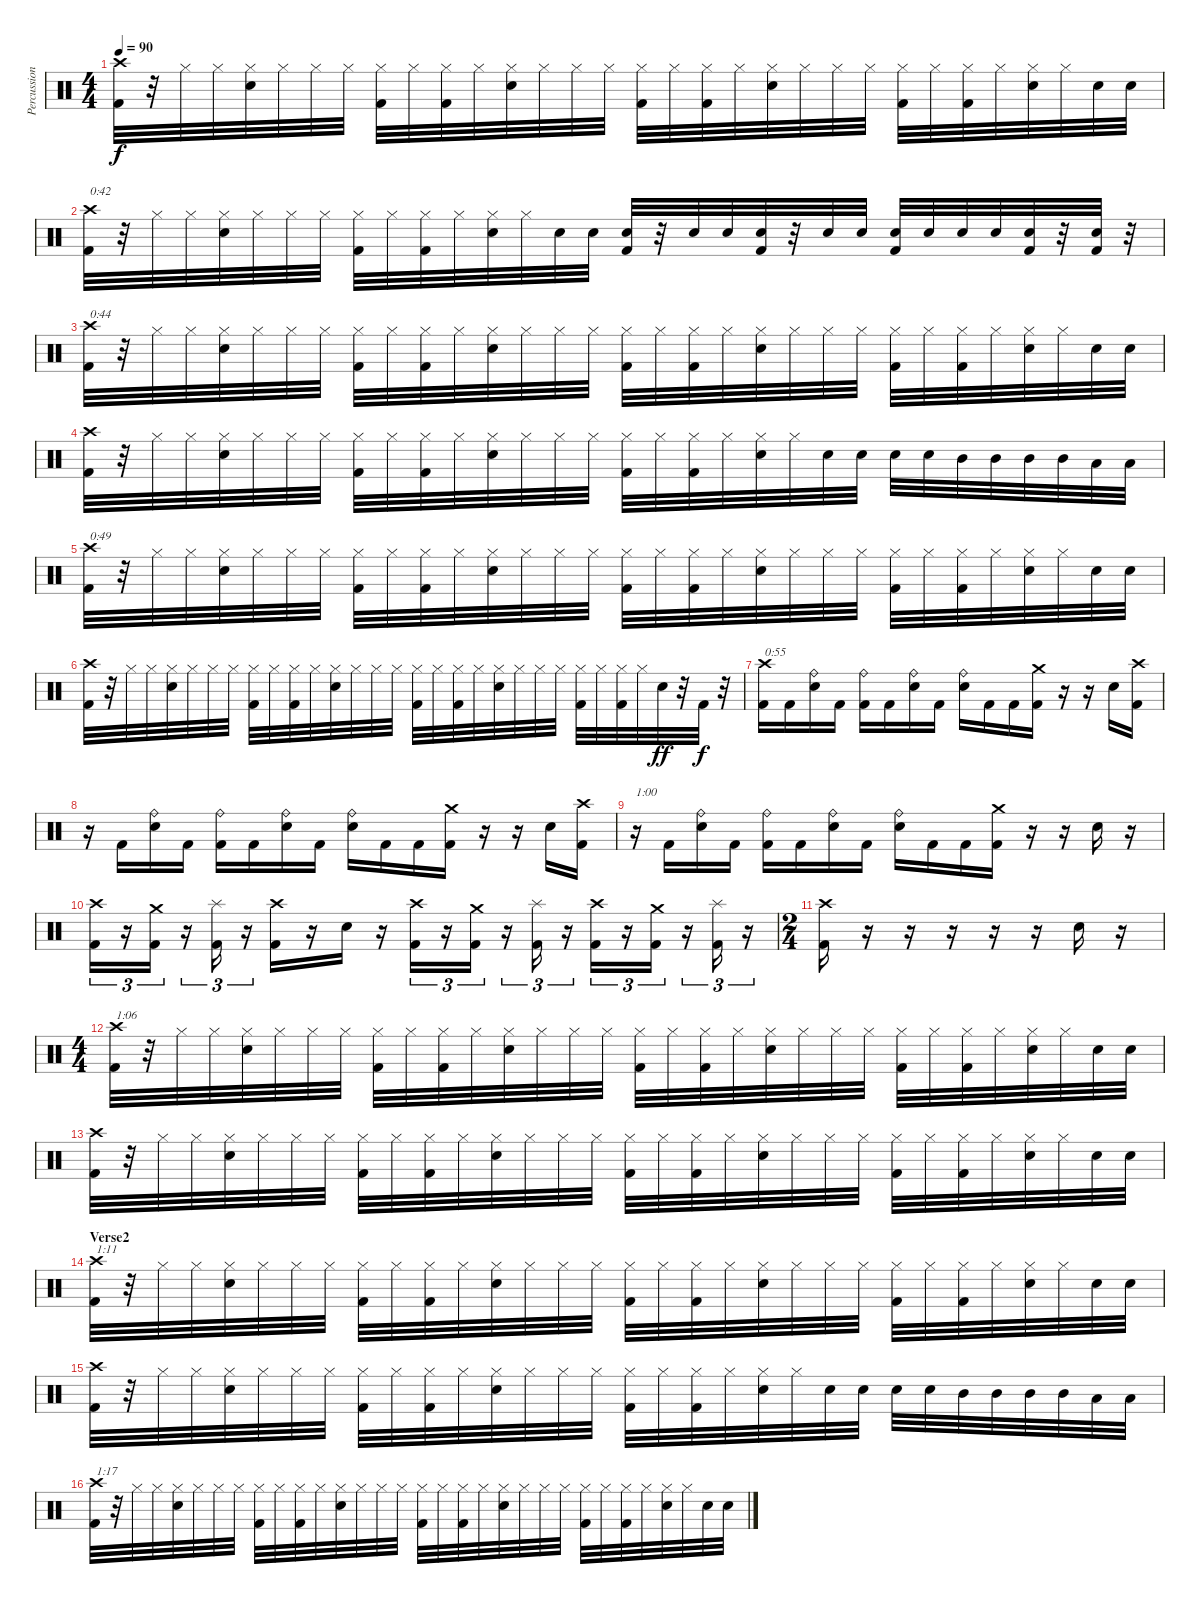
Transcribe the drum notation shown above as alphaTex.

\track ("Percussion" "Percussion") {instrument percussion}
\staff {score}
\articulation defaults
\ts (4 4)
\tempo 90
\clef neutral
\ks c
("Crash high (hit)" "Kick (hit) 2").32{dy f} r.32 "Hi-Hat (closed)".32 "Hi-Hat (closed)".32 ("Hi-Hat (closed)" "Snare (hit) 2").32 "Hi-Hat (closed)".32 "Hi-Hat (closed)".32 "Hi-Hat (closed)".32 ("Hi-Hat (closed)" "Kick (hit) 2").32 "Hi-Hat (closed)".32 ("Hi-Hat (closed)" "Kick (hit) 2").32 "Hi-Hat (closed)".32 ("Hi-Hat (closed)" "Snare (hit) 2").32 "Hi-Hat (closed)".32 "Hi-Hat (closed)".32 "Hi-Hat (closed)".32 ("Hi-Hat (closed)" "Kick (hit) 2").32 "Hi-Hat (closed)".32 ("Hi-Hat (closed)" "Kick (hit) 2").32 "Hi-Hat (closed)".32 ("Hi-Hat (closed)" "Snare (hit) 2").32 "Hi-Hat (closed)".32 "Hi-Hat (closed)".32 "Hi-Hat (closed)".32 ("Hi-Hat (closed)" "Kick (hit) 2").32 "Hi-Hat (closed)".32 ("Hi-Hat (closed)" "Kick (hit) 2").32 "Hi-Hat (closed)".32 ("Hi-Hat (closed)" "Snare (hit) 2").32 "Hi-Hat (closed)".32 "Snare (hit) 2".32 "Snare (hit) 2".32 |
("Crash high (hit)" "Kick (hit) 2").32{txt "0:42"} r.32 "Hi-Hat (closed)".32 "Hi-Hat (closed)".32 ("Hi-Hat (closed)" "Snare (hit) 2").32 "Hi-Hat (closed)".32 "Hi-Hat (closed)".32 "Hi-Hat (closed)".32 ("Hi-Hat (closed)" "Kick (hit) 2").32 "Hi-Hat (closed)".32 ("Hi-Hat (closed)" "Kick (hit) 2").32 "Hi-Hat (closed)".32 ("Hi-Hat (closed)" "Snare (hit) 2").32 "Hi-Hat (closed)".32 "Snare (hit) 2".32 "Snare (hit) 2".32 ("Snare (hit) 2" "Kick (hit) 2").32 r.32 "Snare (hit) 2".32 "Snare (hit) 2".32 ("Snare (hit) 2" "Kick (hit) 2").32 r.32 "Snare (hit) 2".32 "Snare (hit) 2".32 ("Snare (hit) 2" "Kick (hit) 2").32 "Snare (hit) 2".32 "Snare (hit) 2".32 "Snare (hit) 2".32 ("Snare (hit) 2" "Kick (hit) 2").32 r.32 ("Snare (hit) 2" "Kick (hit) 2").32 r.32 |
("Crash high (hit)" "Kick (hit) 2").32{txt "0:44"} r.32 "Hi-Hat (closed)".32 "Hi-Hat (closed)".32 ("Hi-Hat (closed)" "Snare (hit) 2").32 "Hi-Hat (closed)".32 "Hi-Hat (closed)".32 "Hi-Hat (closed)".32 ("Hi-Hat (closed)" "Kick (hit) 2").32 "Hi-Hat (closed)".32 ("Hi-Hat (closed)" "Kick (hit) 2").32 "Hi-Hat (closed)".32 ("Hi-Hat (closed)" "Snare (hit) 2").32 "Hi-Hat (closed)".32 "Hi-Hat (closed)".32 "Hi-Hat (closed)".32 ("Hi-Hat (closed)" "Kick (hit) 2").32 "Hi-Hat (closed)".32 ("Hi-Hat (closed)" "Kick (hit) 2").32 "Hi-Hat (closed)".32 ("Hi-Hat (closed)" "Snare (hit) 2").32 "Hi-Hat (closed)".32 "Hi-Hat (closed)".32 "Hi-Hat (closed)".32 ("Hi-Hat (closed)" "Kick (hit) 2").32 "Hi-Hat (closed)".32 ("Hi-Hat (closed)" "Kick (hit) 2").32 "Hi-Hat (closed)".32 ("Hi-Hat (closed)" "Snare (hit) 2").32 "Hi-Hat (closed)".32 "Snare (hit) 2".32 "Snare (hit) 2".32 |
("Crash high (hit)" "Kick (hit) 2").32 r.32 "Hi-Hat (closed)".32 "Hi-Hat (closed)".32 ("Hi-Hat (closed)" "Snare (hit) 2").32 "Hi-Hat (closed)".32 "Hi-Hat (closed)".32 "Hi-Hat (closed)".32 ("Hi-Hat (closed)" "Kick (hit) 2").32 "Hi-Hat (closed)".32 ("Hi-Hat (closed)" "Kick (hit) 2").32 "Hi-Hat (closed)".32 ("Hi-Hat (closed)" "Snare (hit) 2").32 "Hi-Hat (closed)".32 "Hi-Hat (closed)".32 "Hi-Hat (closed)".32 ("Hi-Hat (closed)" "Kick (hit) 2").32 "Hi-Hat (closed)".32 ("Hi-Hat (closed)" "Kick (hit) 2").32 "Hi-Hat (closed)".32 ("Hi-Hat (closed)" "Snare (hit) 2").32 "Hi-Hat (closed)".32 "Snare (hit) 2".32 "Snare (hit) 2".32 "Snare (hit) 2".32 "Snare (hit) 2".32 "Mid Tom (hit)".32 "Mid Tom (hit)".32 "Mid Tom (hit)".32 "Mid Tom (hit)".32 "Low Tom (hit)".32 "Low Tom (hit)".32 |
("Crash high (hit)" "Kick (hit) 2").32{txt "0:49"} r.32 "Hi-Hat (closed)".32 "Hi-Hat (closed)".32 ("Hi-Hat (closed)" "Snare (hit) 2").32 "Hi-Hat (closed)".32 "Hi-Hat (closed)".32 "Hi-Hat (closed)".32 ("Hi-Hat (closed)" "Kick (hit) 2").32 "Hi-Hat (closed)".32 ("Hi-Hat (closed)" "Kick (hit) 2").32 "Hi-Hat (closed)".32 ("Hi-Hat (closed)" "Snare (hit) 2").32 "Hi-Hat (closed)".32 "Hi-Hat (closed)".32 "Hi-Hat (closed)".32 ("Hi-Hat (closed)" "Kick (hit) 2").32 "Hi-Hat (closed)".32 ("Hi-Hat (closed)" "Kick (hit) 2").32 "Hi-Hat (closed)".32 ("Hi-Hat (closed)" "Snare (hit) 2").32 "Hi-Hat (closed)".32 "Hi-Hat (closed)".32 "Hi-Hat (closed)".32 ("Hi-Hat (closed)" "Kick (hit) 2").32 "Hi-Hat (closed)".32 ("Hi-Hat (closed)" "Kick (hit) 2").32 "Hi-Hat (closed)".32 ("Hi-Hat (closed)" "Snare (hit) 2").32 "Hi-Hat (closed)".32 "Snare (hit) 2".32 "Snare (hit) 2".32 |
("Crash high (hit)" "Kick (hit) 2").32 r.32 "Hi-Hat (closed)".32 "Hi-Hat (closed)".32 ("Hi-Hat (closed)" "Snare (hit) 2").32 "Hi-Hat (closed)".32 "Hi-Hat (closed)".32 "Hi-Hat (closed)".32 ("Hi-Hat (closed)" "Kick (hit) 2").32 "Hi-Hat (closed)".32 ("Hi-Hat (closed)" "Kick (hit) 2").32 "Hi-Hat (closed)".32 ("Hi-Hat (closed)" "Snare (hit) 2").32 "Hi-Hat (closed)".32 "Hi-Hat (closed)".32 "Hi-Hat (closed)".32 ("Hi-Hat (closed)" "Kick (hit) 2").32 "Hi-Hat (closed)".32 ("Hi-Hat (closed)" "Kick (hit) 2").32 "Hi-Hat (closed)".32 ("Hi-Hat (closed)" "Snare (hit) 2").32 "Hi-Hat (closed)".32 "Hi-Hat (closed)".32 "Hi-Hat (closed)".32 ("Hi-Hat (closed)" "Kick (hit) 2").32 "Hi-Hat (closed)".32 ("Hi-Hat (closed)" "Kick (hit) 2").32 "Hi-Hat (closed)".32 "Snare (hit) 2".32{dy ff} r.32 "Kick (hit) 2".32{dy f} r.32 |
("Crash high (hit)" "Kick (hit) 2").16{txt "0:55"} "Kick (hit) 2".16 ("Ride (bell)" "Snare (hit) 2").16 "Kick (hit) 2".16 ("Ride (bell)" "Kick (hit) 2").16 "Kick (hit) 2".16 ("Ride (bell)" "Snare (hit) 2").16 "Kick (hit) 2".16 ("Ride (bell)" "Snare (hit) 2").16 "Kick (hit) 2".16 "Kick (hit) 2".16 ("Crash medium (hit)" "Kick (hit) 2").16 r.16 r.16 "Snare (hit) 2".16 ("Crash high (hit)" "Kick (hit) 2").16 |
r.16 "Kick (hit) 2".16 ("Ride (bell)" "Snare (hit) 2").16 "Kick (hit) 2".16 ("Ride (bell)" "Kick (hit) 2").16 "Kick (hit) 2".16 ("Ride (bell)" "Snare (hit) 2").16 "Kick (hit) 2".16 ("Ride (bell)" "Snare (hit) 2").16 "Kick (hit) 2".16 "Kick (hit) 2".16 ("Crash medium (hit)" "Kick (hit) 2").16 r.16 r.16 "Snare (hit) 2".16 ("Crash high (hit)" "Kick (hit) 2").16 |
r.16{txt "1:00"} "Kick (hit) 2".16 ("Ride (bell)" "Snare (hit) 2").16 "Kick (hit) 2".16 ("Ride (bell)" "Kick (hit) 2").16 "Kick (hit) 2".16 ("Ride (bell)" "Snare (hit) 2").16 "Kick (hit) 2".16 ("Ride (bell)" "Snare (hit) 2").16 "Kick (hit) 2".16 "Kick (hit) 2".16 ("Crash medium (hit)" "Kick (hit) 2").16 r.16 r.16 "Snare (hit) 2".16 r.16 |
("Crash high (hit)" "Kick (hit) 2").16{tu (3 2)} r.16{tu (3 2)} ("Crash medium (hit)" "Kick (hit) 2").16{tu (3 2)} r.16{tu (3 2)} ("Splash (hit)" "Kick (hit) 2").16{tu (3 2)} r.16{tu (3 2)} ("Crash high (hit)" "Kick (hit) 2").16 r.16 "Snare (hit) 2".16 r.16 ("Crash high (hit)" "Kick (hit) 2").16{tu (3 2)} r.16{tu (3 2)} ("Crash medium (hit)" "Kick (hit) 2").16{tu (3 2)} r.16{tu (3 2)} ("Splash (hit)" "Kick (hit) 2").16{tu (3 2)} r.16{tu (3 2)} ("Crash high (hit)" "Kick (hit) 2").16{tu (3 2)} r.16{tu (3 2)} ("Crash medium (hit)" "Kick (hit) 2").16{tu (3 2)} r.16{tu (3 2)} ("Splash (hit)" "Kick (hit) 2").16{tu (3 2)} r.16{tu (3 2)} |
\ts (2 4)
("Crash high (hit)" "Kick (hit) 2").16 r.16 r.16 r.16 r.16 r.16 "Snare (hit) 2".16 r.16 |
\ts (4 4)
("Crash high (hit)" "Kick (hit) 2").32{txt "1:06"} r.32 "Hi-Hat (closed)".32 "Hi-Hat (closed)".32 ("Hi-Hat (closed)" "Snare (hit) 2").32 "Hi-Hat (closed)".32 "Hi-Hat (closed)".32 "Hi-Hat (closed)".32 ("Hi-Hat (closed)" "Kick (hit) 2").32 "Hi-Hat (closed)".32 ("Hi-Hat (closed)" "Kick (hit) 2").32 "Hi-Hat (closed)".32 ("Hi-Hat (closed)" "Snare (hit) 2").32 "Hi-Hat (closed)".32 "Hi-Hat (closed)".32 "Hi-Hat (closed)".32 ("Hi-Hat (closed)" "Kick (hit) 2").32 "Hi-Hat (closed)".32 ("Hi-Hat (closed)" "Kick (hit) 2").32 "Hi-Hat (closed)".32 ("Hi-Hat (closed)" "Snare (hit) 2").32 "Hi-Hat (closed)".32 "Hi-Hat (closed)".32 "Hi-Hat (closed)".32 ("Hi-Hat (closed)" "Kick (hit) 2").32 "Hi-Hat (closed)".32 ("Hi-Hat (closed)" "Kick (hit) 2").32 "Hi-Hat (closed)".32 ("Hi-Hat (closed)" "Snare (hit) 2").32 "Hi-Hat (closed)".32 "Snare (hit) 2".32 "Snare (hit) 2".32 |
("Crash high (hit)" "Kick (hit) 2").32 r.32 "Hi-Hat (closed)".32 "Hi-Hat (closed)".32 ("Hi-Hat (closed)" "Snare (hit) 2").32 "Hi-Hat (closed)".32 "Hi-Hat (closed)".32 "Hi-Hat (closed)".32 ("Hi-Hat (closed)" "Kick (hit) 2").32 "Hi-Hat (closed)".32 ("Hi-Hat (closed)" "Kick (hit) 2").32 "Hi-Hat (closed)".32 ("Hi-Hat (closed)" "Snare (hit) 2").32 "Hi-Hat (closed)".32 "Hi-Hat (closed)".32 "Hi-Hat (closed)".32 ("Hi-Hat (closed)" "Kick (hit) 2").32 "Hi-Hat (closed)".32 ("Hi-Hat (closed)" "Kick (hit) 2").32 "Hi-Hat (closed)".32 ("Hi-Hat (closed)" "Snare (hit) 2").32 "Hi-Hat (closed)".32 "Hi-Hat (closed)".32 "Hi-Hat (closed)".32 ("Hi-Hat (closed)" "Kick (hit) 2").32 "Hi-Hat (closed)".32 ("Hi-Hat (closed)" "Kick (hit) 2").32 "Hi-Hat (closed)".32 ("Hi-Hat (closed)" "Snare (hit) 2").32 "Hi-Hat (closed)".32 "Snare (hit) 2".32 "Snare (hit) 2".32 |
\section ("" "Verse2")
("Crash high (hit)" "Kick (hit) 2").32{txt "1:11"} r.32 "Hi-Hat (closed)".32 "Hi-Hat (closed)".32 ("Hi-Hat (closed)" "Snare (hit) 2").32 "Hi-Hat (closed)".32 "Hi-Hat (closed)".32 "Hi-Hat (closed)".32 ("Hi-Hat (closed)" "Kick (hit) 2").32 "Hi-Hat (closed)".32 ("Hi-Hat (closed)" "Kick (hit) 2").32 "Hi-Hat (closed)".32 ("Hi-Hat (closed)" "Snare (hit) 2").32 "Hi-Hat (closed)".32 "Hi-Hat (closed)".32 "Hi-Hat (closed)".32 ("Hi-Hat (closed)" "Kick (hit) 2").32 "Hi-Hat (closed)".32 ("Hi-Hat (closed)" "Kick (hit) 2").32 "Hi-Hat (closed)".32 ("Hi-Hat (closed)" "Snare (hit) 2").32 "Hi-Hat (closed)".32 "Hi-Hat (closed)".32 "Hi-Hat (closed)".32 ("Hi-Hat (closed)" "Kick (hit) 2").32 "Hi-Hat (closed)".32 ("Hi-Hat (closed)" "Kick (hit) 2").32 "Hi-Hat (closed)".32 ("Hi-Hat (closed)" "Snare (hit) 2").32 "Hi-Hat (closed)".32 "Snare (hit) 2".32 "Snare (hit) 2".32 |
("Crash high (hit)" "Kick (hit) 2").32 r.32 "Hi-Hat (closed)".32 "Hi-Hat (closed)".32 ("Hi-Hat (closed)" "Snare (hit) 2").32 "Hi-Hat (closed)".32 "Hi-Hat (closed)".32 "Hi-Hat (closed)".32 ("Hi-Hat (closed)" "Kick (hit) 2").32 "Hi-Hat (closed)".32 ("Hi-Hat (closed)" "Kick (hit) 2").32 "Hi-Hat (closed)".32 ("Hi-Hat (closed)" "Snare (hit) 2").32 "Hi-Hat (closed)".32 "Hi-Hat (closed)".32 "Hi-Hat (closed)".32 ("Hi-Hat (closed)" "Kick (hit) 2").32 "Hi-Hat (closed)".32 ("Hi-Hat (closed)" "Kick (hit) 2").32 "Hi-Hat (closed)".32 ("Hi-Hat (closed)" "Snare (hit) 2").32 "Hi-Hat (closed)".32 "Snare (hit) 2".32 "Snare (hit) 2".32 "Snare (hit) 2".32 "Snare (hit) 2".32 "Mid Tom (hit)".32 "Mid Tom (hit)".32 "Mid Tom (hit)".32 "Mid Tom (hit)".32 "Low Tom (hit)".32 "Low Tom (hit)".32 |
("Crash high (hit)" "Kick (hit) 2").32{txt "1:17"} r.32 "Hi-Hat (closed)".32 "Hi-Hat (closed)".32 ("Hi-Hat (closed)" "Snare (hit) 2").32 "Hi-Hat (closed)".32 "Hi-Hat (closed)".32 "Hi-Hat (closed)".32 ("Hi-Hat (closed)" "Kick (hit) 2").32 "Hi-Hat (closed)".32 ("Hi-Hat (closed)" "Kick (hit) 2").32 "Hi-Hat (closed)".32 ("Hi-Hat (closed)" "Snare (hit) 2").32 "Hi-Hat (closed)".32 "Hi-Hat (closed)".32 "Hi-Hat (closed)".32 ("Hi-Hat (closed)" "Kick (hit) 2").32 "Hi-Hat (closed)".32 ("Hi-Hat (closed)" "Kick (hit) 2").32 "Hi-Hat (closed)".32 ("Hi-Hat (closed)" "Snare (hit) 2").32 "Hi-Hat (closed)".32 "Hi-Hat (closed)".32 "Hi-Hat (closed)".32 ("Hi-Hat (closed)" "Kick (hit) 2").32 "Hi-Hat (closed)".32 ("Hi-Hat (closed)" "Kick (hit) 2").32 "Hi-Hat (closed)".32 ("Hi-Hat (closed)" "Snare (hit) 2").32 "Hi-Hat (closed)".32 "Snare (hit) 2".32 "Snare (hit) 2".32
